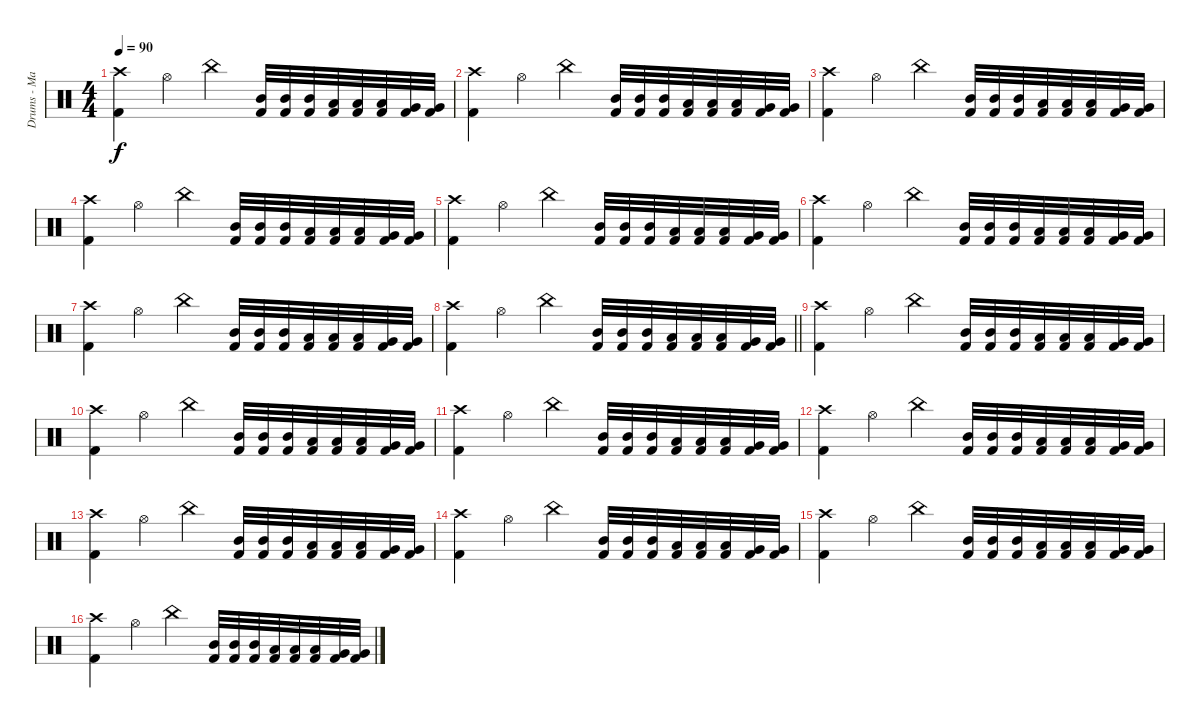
\track ("Drums - Mario Duplantier" "Drums - Ma") {instrument percussion}
\staff {score}
\articulation defaults
\ts (4 4)
\tempo 90
\clef neutral
\ks c
("Crash high (hit)" "Kick (hit) 2").4{dy f} "Hi-Hat (open)".4 "China (hit)".4 ("Mid Tom (hit)" "Kick (hit) 2").32 ("Mid Tom (hit)" "Kick (hit) 2").32 ("Mid Tom (hit)" "Kick (hit) 2").32 ("Low Tom (hit)" "Kick (hit) 2").32 ("Low Tom (hit)" "Kick (hit) 2").32 ("Low Tom (hit)" "Kick (hit) 2").32 ("Very Low Tom (hit)" "Kick (hit) 2").32 ("Very Low Tom (hit)" "Kick (hit) 2").32 |
("Crash high (hit)" "Kick (hit) 2").4 "Hi-Hat (open)".4 "China (hit)".4 ("Mid Tom (hit)" "Kick (hit) 2").32 ("Mid Tom (hit)" "Kick (hit) 2").32 ("Mid Tom (hit)" "Kick (hit) 2").32 ("Low Tom (hit)" "Kick (hit) 2").32 ("Low Tom (hit)" "Kick (hit) 2").32 ("Low Tom (hit)" "Kick (hit) 2").32 ("Very Low Tom (hit)" "Kick (hit) 2").32 ("Very Low Tom (hit)" "Kick (hit) 2").32 |
("Crash high (hit)" "Kick (hit) 2").4 "Hi-Hat (open)".4 "China (hit)".4 ("Mid Tom (hit)" "Kick (hit) 2").32 ("Mid Tom (hit)" "Kick (hit) 2").32 ("Mid Tom (hit)" "Kick (hit) 2").32 ("Low Tom (hit)" "Kick (hit) 2").32 ("Low Tom (hit)" "Kick (hit) 2").32 ("Low Tom (hit)" "Kick (hit) 2").32 ("Very Low Tom (hit)" "Kick (hit) 2").32 ("Very Low Tom (hit)" "Kick (hit) 2").32 |
("Crash high (hit)" "Kick (hit) 2").4 "Hi-Hat (open)".4 "China (hit)".4 ("Mid Tom (hit)" "Kick (hit) 2").32 ("Mid Tom (hit)" "Kick (hit) 2").32 ("Mid Tom (hit)" "Kick (hit) 2").32 ("Low Tom (hit)" "Kick (hit) 2").32 ("Low Tom (hit)" "Kick (hit) 2").32 ("Low Tom (hit)" "Kick (hit) 2").32 ("Very Low Tom (hit)" "Kick (hit) 2").32 ("Very Low Tom (hit)" "Kick (hit) 2").32 |
("Crash high (hit)" "Kick (hit) 2").4 "Hi-Hat (open)".4 "China (hit)".4 ("Mid Tom (hit)" "Kick (hit) 2").32 ("Mid Tom (hit)" "Kick (hit) 2").32 ("Mid Tom (hit)" "Kick (hit) 2").32 ("Low Tom (hit)" "Kick (hit) 2").32 ("Low Tom (hit)" "Kick (hit) 2").32 ("Low Tom (hit)" "Kick (hit) 2").32 ("Very Low Tom (hit)" "Kick (hit) 2").32 ("Very Low Tom (hit)" "Kick (hit) 2").32 |
("Crash high (hit)" "Kick (hit) 2").4 "Hi-Hat (open)".4 "China (hit)".4 ("Mid Tom (hit)" "Kick (hit) 2").32 ("Mid Tom (hit)" "Kick (hit) 2").32 ("Mid Tom (hit)" "Kick (hit) 2").32 ("Low Tom (hit)" "Kick (hit) 2").32 ("Low Tom (hit)" "Kick (hit) 2").32 ("Low Tom (hit)" "Kick (hit) 2").32 ("Very Low Tom (hit)" "Kick (hit) 2").32 ("Very Low Tom (hit)" "Kick (hit) 2").32 |
("Crash high (hit)" "Kick (hit) 2").4 "Hi-Hat (open)".4 "China (hit)".4 ("Mid Tom (hit)" "Kick (hit) 2").32 ("Mid Tom (hit)" "Kick (hit) 2").32 ("Mid Tom (hit)" "Kick (hit) 2").32 ("Low Tom (hit)" "Kick (hit) 2").32 ("Low Tom (hit)" "Kick (hit) 2").32 ("Low Tom (hit)" "Kick (hit) 2").32 ("Very Low Tom (hit)" "Kick (hit) 2").32 ("Very Low Tom (hit)" "Kick (hit) 2").32 |
\barLineRight lightlight
("Crash high (hit)" "Kick (hit) 2").4 "Hi-Hat (open)".4 "China (hit)".4 ("Mid Tom (hit)" "Kick (hit) 2").32 ("Mid Tom (hit)" "Kick (hit) 2").32 ("Mid Tom (hit)" "Kick (hit) 2").32 ("Low Tom (hit)" "Kick (hit) 2").32 ("Low Tom (hit)" "Kick (hit) 2").32 ("Low Tom (hit)" "Kick (hit) 2").32 ("Very Low Tom (hit)" "Kick (hit) 2").32 ("Very Low Tom (hit)" "Kick (hit) 2").32 |
\section ("" "")
("Crash high (hit)" "Kick (hit) 2").4 "Hi-Hat (open)".4 "China (hit)".4 ("Mid Tom (hit)" "Kick (hit) 2").32 ("Mid Tom (hit)" "Kick (hit) 2").32 ("Mid Tom (hit)" "Kick (hit) 2").32 ("Low Tom (hit)" "Kick (hit) 2").32 ("Low Tom (hit)" "Kick (hit) 2").32 ("Low Tom (hit)" "Kick (hit) 2").32 ("Very Low Tom (hit)" "Kick (hit) 2").32 ("Very Low Tom (hit)" "Kick (hit) 2").32 |
("Crash high (hit)" "Kick (hit) 2").4 "Hi-Hat (open)".4 "China (hit)".4 ("Mid Tom (hit)" "Kick (hit) 2").32 ("Mid Tom (hit)" "Kick (hit) 2").32 ("Mid Tom (hit)" "Kick (hit) 2").32 ("Low Tom (hit)" "Kick (hit) 2").32 ("Low Tom (hit)" "Kick (hit) 2").32 ("Low Tom (hit)" "Kick (hit) 2").32 ("Very Low Tom (hit)" "Kick (hit) 2").32 ("Very Low Tom (hit)" "Kick (hit) 2").32 |
("Crash high (hit)" "Kick (hit) 2").4 "Hi-Hat (open)".4 "China (hit)".4 ("Mid Tom (hit)" "Kick (hit) 2").32 ("Mid Tom (hit)" "Kick (hit) 2").32 ("Mid Tom (hit)" "Kick (hit) 2").32 ("Low Tom (hit)" "Kick (hit) 2").32 ("Low Tom (hit)" "Kick (hit) 2").32 ("Low Tom (hit)" "Kick (hit) 2").32 ("Very Low Tom (hit)" "Kick (hit) 2").32 ("Very Low Tom (hit)" "Kick (hit) 2").32 |
("Crash high (hit)" "Kick (hit) 2").4 "Hi-Hat (open)".4 "China (hit)".4 ("Mid Tom (hit)" "Kick (hit) 2").32 ("Mid Tom (hit)" "Kick (hit) 2").32 ("Mid Tom (hit)" "Kick (hit) 2").32 ("Low Tom (hit)" "Kick (hit) 2").32 ("Low Tom (hit)" "Kick (hit) 2").32 ("Low Tom (hit)" "Kick (hit) 2").32 ("Very Low Tom (hit)" "Kick (hit) 2").32 ("Very Low Tom (hit)" "Kick (hit) 2").32 |
("Crash high (hit)" "Kick (hit) 2").4 "Hi-Hat (open)".4 "China (hit)".4 ("Mid Tom (hit)" "Kick (hit) 2").32 ("Mid Tom (hit)" "Kick (hit) 2").32 ("Mid Tom (hit)" "Kick (hit) 2").32 ("Low Tom (hit)" "Kick (hit) 2").32 ("Low Tom (hit)" "Kick (hit) 2").32 ("Low Tom (hit)" "Kick (hit) 2").32 ("Very Low Tom (hit)" "Kick (hit) 2").32 ("Very Low Tom (hit)" "Kick (hit) 2").32 |
("Crash high (hit)" "Kick (hit) 2").4 "Hi-Hat (open)".4 "China (hit)".4 ("Mid Tom (hit)" "Kick (hit) 2").32 ("Mid Tom (hit)" "Kick (hit) 2").32 ("Mid Tom (hit)" "Kick (hit) 2").32 ("Low Tom (hit)" "Kick (hit) 2").32 ("Low Tom (hit)" "Kick (hit) 2").32 ("Low Tom (hit)" "Kick (hit) 2").32 ("Very Low Tom (hit)" "Kick (hit) 2").32 ("Very Low Tom (hit)" "Kick (hit) 2").32 |
("Crash high (hit)" "Kick (hit) 2").4 "Hi-Hat (open)".4 "China (hit)".4 ("Mid Tom (hit)" "Kick (hit) 2").32 ("Mid Tom (hit)" "Kick (hit) 2").32 ("Mid Tom (hit)" "Kick (hit) 2").32 ("Low Tom (hit)" "Kick (hit) 2").32 ("Low Tom (hit)" "Kick (hit) 2").32 ("Low Tom (hit)" "Kick (hit) 2").32 ("Very Low Tom (hit)" "Kick (hit) 2").32 ("Very Low Tom (hit)" "Kick (hit) 2").32 |
("Crash high (hit)" "Kick (hit) 2").4 "Hi-Hat (open)".4 "China (hit)".4 ("Mid Tom (hit)" "Kick (hit) 2").32 ("Mid Tom (hit)" "Kick (hit) 2").32 ("Mid Tom (hit)" "Kick (hit) 2").32 ("Low Tom (hit)" "Kick (hit) 2").32 ("Low Tom (hit)" "Kick (hit) 2").32 ("Low Tom (hit)" "Kick (hit) 2").32 ("Very Low Tom (hit)" "Kick (hit) 2").32 ("Very Low Tom (hit)" "Kick (hit) 2").32
